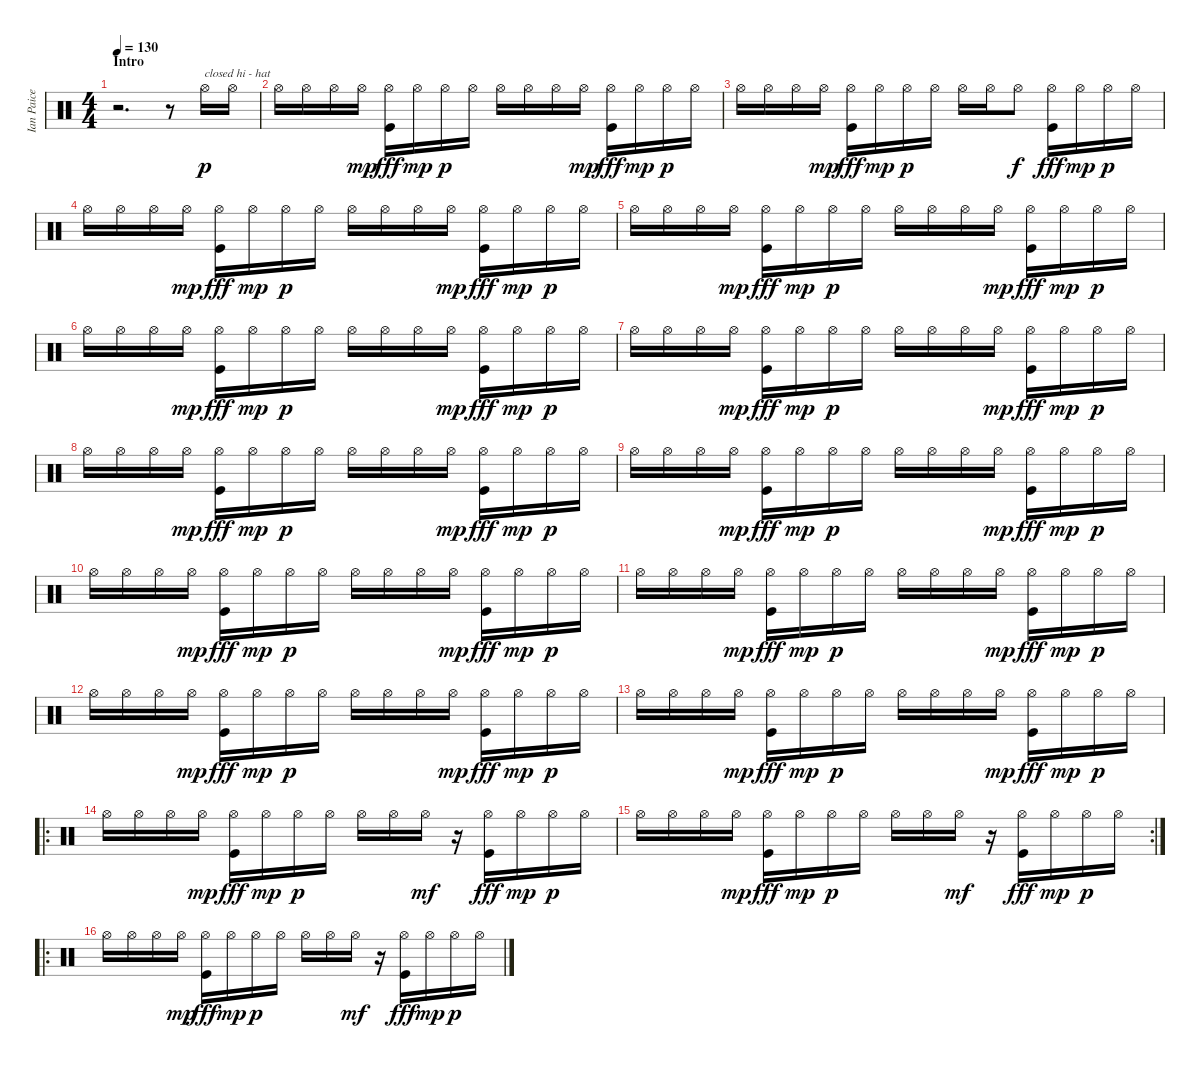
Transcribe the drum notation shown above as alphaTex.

\track ("Ian Paice - Drums" "Ian Paice ") {instrument percussion}
\staff {score}
\articulation defaults
\ts (4 4)
\section ("" "Intro")
\tempo 130
\clef neutral
\ks c
r.2{d dy p} r.8 "Hi-Hat (open)".16{txt "closed hi - hat"} "Hi-Hat (open)".16 |
"Hi-Hat (open)".16 "Hi-Hat (open)".16 "Hi-Hat (open)".16 "Hi-Hat (open)".16{dy mp} ("Hi-Hat (open)" "Kick (hit)").16{dy fff} "Hi-Hat (open)".16{dy mp} "Hi-Hat (open)".16{dy p} "Hi-Hat (open)".16 "Hi-Hat (open)".16 "Hi-Hat (open)".16 "Hi-Hat (open)".16 "Hi-Hat (open)".16{dy mp} ("Hi-Hat (open)" "Kick (hit)").16{dy fff} "Hi-Hat (open)".16{dy mp} "Hi-Hat (open)".16{dy p} "Hi-Hat (open)".16 |
"Hi-Hat (open)".16 "Hi-Hat (open)".16 "Hi-Hat (open)".16 "Hi-Hat (open)".16{dy mp} ("Hi-Hat (open)" "Kick (hit)").16{dy fff} "Hi-Hat (open)".16{dy mp} "Hi-Hat (open)".16{dy p} "Hi-Hat (open)".16 "Hi-Hat (open)".16 "Hi-Hat (open)".16 "Hi-Hat (open)".8{dy f} ("Hi-Hat (open)" "Kick (hit)").16{dy fff} "Hi-Hat (open)".16{dy mp} "Hi-Hat (open)".16{dy p} "Hi-Hat (open)".16 |
"Hi-Hat (open)".16 "Hi-Hat (open)".16 "Hi-Hat (open)".16 "Hi-Hat (open)".16{dy mp} ("Hi-Hat (open)" "Kick (hit)").16{dy fff} "Hi-Hat (open)".16{dy mp} "Hi-Hat (open)".16{dy p} "Hi-Hat (open)".16 "Hi-Hat (open)".16 "Hi-Hat (open)".16 "Hi-Hat (open)".16 "Hi-Hat (open)".16{dy mp} ("Hi-Hat (open)" "Kick (hit)").16{dy fff} "Hi-Hat (open)".16{dy mp} "Hi-Hat (open)".16{dy p} "Hi-Hat (open)".16 |
"Hi-Hat (open)".16 "Hi-Hat (open)".16 "Hi-Hat (open)".16 "Hi-Hat (open)".16{dy mp} ("Hi-Hat (open)" "Kick (hit)").16{dy fff} "Hi-Hat (open)".16{dy mp} "Hi-Hat (open)".16{dy p} "Hi-Hat (open)".16 "Hi-Hat (open)".16 "Hi-Hat (open)".16 "Hi-Hat (open)".16 "Hi-Hat (open)".16{dy mp} ("Hi-Hat (open)" "Kick (hit)").16{dy fff} "Hi-Hat (open)".16{dy mp} "Hi-Hat (open)".16{dy p} "Hi-Hat (open)".16 |
"Hi-Hat (open)".16 "Hi-Hat (open)".16 "Hi-Hat (open)".16 "Hi-Hat (open)".16{dy mp} ("Hi-Hat (open)" "Kick (hit)").16{dy fff} "Hi-Hat (open)".16{dy mp} "Hi-Hat (open)".16{dy p} "Hi-Hat (open)".16 "Hi-Hat (open)".16 "Hi-Hat (open)".16 "Hi-Hat (open)".16 "Hi-Hat (open)".16{dy mp} ("Hi-Hat (open)" "Kick (hit)").16{dy fff} "Hi-Hat (open)".16{dy mp} "Hi-Hat (open)".16{dy p} "Hi-Hat (open)".16 |
"Hi-Hat (open)".16 "Hi-Hat (open)".16 "Hi-Hat (open)".16 "Hi-Hat (open)".16{dy mp} ("Hi-Hat (open)" "Kick (hit)").16{dy fff} "Hi-Hat (open)".16{dy mp} "Hi-Hat (open)".16{dy p} "Hi-Hat (open)".16 "Hi-Hat (open)".16 "Hi-Hat (open)".16 "Hi-Hat (open)".16 "Hi-Hat (open)".16{dy mp} ("Hi-Hat (open)" "Kick (hit)").16{dy fff} "Hi-Hat (open)".16{dy mp} "Hi-Hat (open)".16{dy p} "Hi-Hat (open)".16 |
"Hi-Hat (open)".16 "Hi-Hat (open)".16 "Hi-Hat (open)".16 "Hi-Hat (open)".16{dy mp} ("Hi-Hat (open)" "Kick (hit)").16{dy fff} "Hi-Hat (open)".16{dy mp} "Hi-Hat (open)".16{dy p} "Hi-Hat (open)".16 "Hi-Hat (open)".16 "Hi-Hat (open)".16 "Hi-Hat (open)".16 "Hi-Hat (open)".16{dy mp} ("Hi-Hat (open)" "Kick (hit)").16{dy fff} "Hi-Hat (open)".16{dy mp} "Hi-Hat (open)".16{dy p} "Hi-Hat (open)".16 |
"Hi-Hat (open)".16 "Hi-Hat (open)".16 "Hi-Hat (open)".16 "Hi-Hat (open)".16{dy mp} ("Hi-Hat (open)" "Kick (hit)").16{dy fff} "Hi-Hat (open)".16{dy mp} "Hi-Hat (open)".16{dy p} "Hi-Hat (open)".16 "Hi-Hat (open)".16 "Hi-Hat (open)".16 "Hi-Hat (open)".16 "Hi-Hat (open)".16{dy mp} ("Hi-Hat (open)" "Kick (hit)").16{dy fff} "Hi-Hat (open)".16{dy mp} "Hi-Hat (open)".16{dy p} "Hi-Hat (open)".16 |
"Hi-Hat (open)".16 "Hi-Hat (open)".16 "Hi-Hat (open)".16 "Hi-Hat (open)".16{dy mp} ("Hi-Hat (open)" "Kick (hit)").16{dy fff} "Hi-Hat (open)".16{dy mp} "Hi-Hat (open)".16{dy p} "Hi-Hat (open)".16 "Hi-Hat (open)".16 "Hi-Hat (open)".16 "Hi-Hat (open)".16 "Hi-Hat (open)".16{dy mp} ("Hi-Hat (open)" "Kick (hit)").16{dy fff} "Hi-Hat (open)".16{dy mp} "Hi-Hat (open)".16{dy p} "Hi-Hat (open)".16 |
"Hi-Hat (open)".16 "Hi-Hat (open)".16 "Hi-Hat (open)".16 "Hi-Hat (open)".16{dy mp} ("Hi-Hat (open)" "Kick (hit)").16{dy fff} "Hi-Hat (open)".16{dy mp} "Hi-Hat (open)".16{dy p} "Hi-Hat (open)".16 "Hi-Hat (open)".16 "Hi-Hat (open)".16 "Hi-Hat (open)".16 "Hi-Hat (open)".16{dy mp} ("Hi-Hat (open)" "Kick (hit)").16{dy fff} "Hi-Hat (open)".16{dy mp} "Hi-Hat (open)".16{dy p} "Hi-Hat (open)".16 |
"Hi-Hat (open)".16 "Hi-Hat (open)".16 "Hi-Hat (open)".16 "Hi-Hat (open)".16{dy mp} ("Hi-Hat (open)" "Kick (hit)").16{dy fff} "Hi-Hat (open)".16{dy mp} "Hi-Hat (open)".16{dy p} "Hi-Hat (open)".16 "Hi-Hat (open)".16 "Hi-Hat (open)".16 "Hi-Hat (open)".16 "Hi-Hat (open)".16{dy mp} ("Hi-Hat (open)" "Kick (hit)").16{dy fff} "Hi-Hat (open)".16{dy mp} "Hi-Hat (open)".16{dy p} "Hi-Hat (open)".16 |
"Hi-Hat (open)".16 "Hi-Hat (open)".16 "Hi-Hat (open)".16 "Hi-Hat (open)".16{dy mp} ("Hi-Hat (open)" "Kick (hit)").16{dy fff} "Hi-Hat (open)".16{dy mp} "Hi-Hat (open)".16{dy p} "Hi-Hat (open)".16 "Hi-Hat (open)".16 "Hi-Hat (open)".16 "Hi-Hat (open)".16 "Hi-Hat (open)".16{dy mp} ("Hi-Hat (open)" "Kick (hit)").16{dy fff} "Hi-Hat (open)".16{dy mp} "Hi-Hat (open)".16{dy p} "Hi-Hat (open)".16 |
\ro "Hi-Hat (open)".16 "Hi-Hat (open)".16 "Hi-Hat (open)".16 "Hi-Hat (open)".16{dy mp}
("Hi-Hat (open)" "Kick (hit)").16{dy fff} "Hi-Hat (open)".16{dy mp} "Hi-Hat (open)".16{dy p} "Hi-Hat (open)".16 "Hi-Hat (open)".16 "Hi-Hat (open)".16 "Hi-Hat (open)".16{dy mf} r.16 ("Hi-Hat (open)" "Kick (hit)").16{dy fff} "Hi-Hat (open)".16{dy mp} "Hi-Hat (open)".16{dy p} "Hi-Hat (open)".16 |
\rc 2 "Hi-Hat (open)".16 "Hi-Hat (open)".16 "Hi-Hat (open)".16 "Hi-Hat (open)".16{dy mp}
("Hi-Hat (open)" "Kick (hit)").16{dy fff} "Hi-Hat (open)".16{dy mp} "Hi-Hat (open)".16{dy p} "Hi-Hat (open)".16 "Hi-Hat (open)".16 "Hi-Hat (open)".16 "Hi-Hat (open)".16{dy mf} r.16 ("Hi-Hat (open)" "Kick (hit)").16{dy fff} "Hi-Hat (open)".16{dy mp} "Hi-Hat (open)".16{dy p} "Hi-Hat (open)".16 |
\ro "Hi-Hat (open)".16 "Hi-Hat (open)".16 "Hi-Hat (open)".16 "Hi-Hat (open)".16{dy mp}
("Hi-Hat (open)" "Kick (hit)").16{dy fff} "Hi-Hat (open)".16{dy mp} "Hi-Hat (open)".16{dy p} "Hi-Hat (open)".16 "Hi-Hat (open)".16 "Hi-Hat (open)".16 "Hi-Hat (open)".16{dy mf} r.16 ("Hi-Hat (open)" "Kick (hit)").16{dy fff} "Hi-Hat (open)".16{dy mp} "Hi-Hat (open)".16{dy p} "Hi-Hat (open)".16
